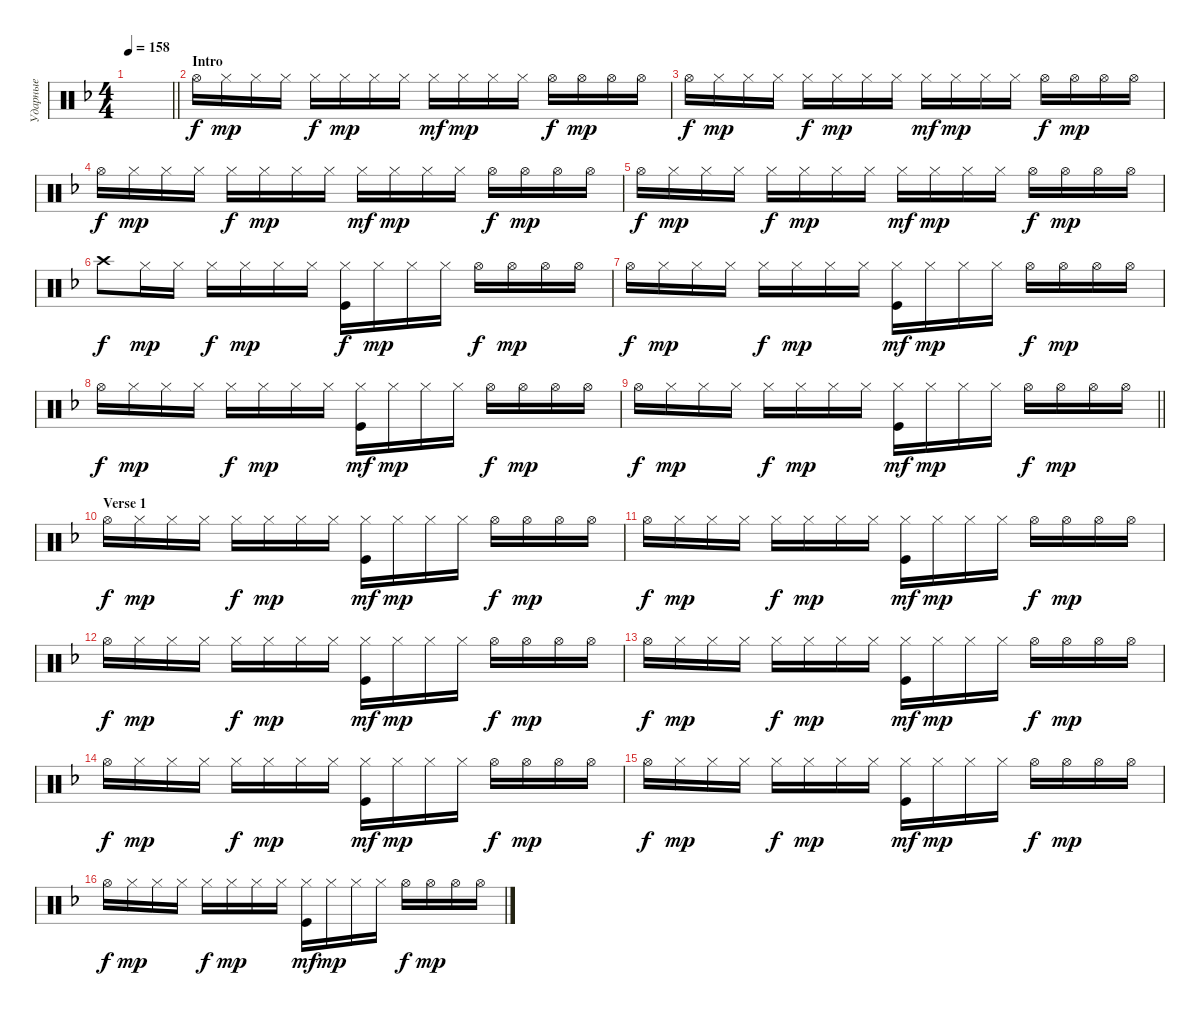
\track ("Ударные" "Ударные") {instrument percussion}
\staff {score}
\articulation defaults
\ts (4 4)
\tempo 158
\clef neutral
\barLineRight lightlight
\ks dminor
|
\section ("" "Intro")
"Hi-Hat (open)".16 "Hi-Hat (closed)".16{dy mp} "Hi-Hat (closed)".16 "Hi-Hat (closed)".16 "Hi-Hat (closed)".16{dy f} "Hi-Hat (closed)".16{dy mp} "Hi-Hat (closed)".16 "Hi-Hat (closed)".16 "Hi-Hat (closed)".16{dy mf} "Hi-Hat (closed)".16{dy mp} "Hi-Hat (closed)".16 "Hi-Hat (closed)".16 "Hi-Hat (open)".16{dy f} "Hi-Hat (open)".16{dy mp} "Hi-Hat (open)".16 "Hi-Hat (open)".16 |
"Hi-Hat (open)".16{dy f} "Hi-Hat (closed)".16{dy mp} "Hi-Hat (closed)".16 "Hi-Hat (closed)".16 "Hi-Hat (closed)".16{dy f} "Hi-Hat (closed)".16{dy mp} "Hi-Hat (closed)".16 "Hi-Hat (closed)".16 "Hi-Hat (closed)".16{dy mf} "Hi-Hat (closed)".16{dy mp} "Hi-Hat (closed)".16 "Hi-Hat (closed)".16 "Hi-Hat (open)".16{dy f} "Hi-Hat (open)".16{dy mp} "Hi-Hat (open)".16 "Hi-Hat (open)".16 |
"Hi-Hat (open)".16{dy f} "Hi-Hat (closed)".16{dy mp} "Hi-Hat (closed)".16 "Hi-Hat (closed)".16 "Hi-Hat (closed)".16{dy f} "Hi-Hat (closed)".16{dy mp} "Hi-Hat (closed)".16 "Hi-Hat (closed)".16 "Hi-Hat (closed)".16{dy mf} "Hi-Hat (closed)".16{dy mp} "Hi-Hat (closed)".16 "Hi-Hat (closed)".16 "Hi-Hat (open)".16{dy f} "Hi-Hat (open)".16{dy mp} "Hi-Hat (open)".16 "Hi-Hat (open)".16 |
"Hi-Hat (open)".16{dy f} "Hi-Hat (closed)".16{dy mp} "Hi-Hat (closed)".16 "Hi-Hat (closed)".16 "Hi-Hat (closed)".16{dy f} "Hi-Hat (closed)".16{dy mp} "Hi-Hat (closed)".16 "Hi-Hat (closed)".16 "Hi-Hat (closed)".16{dy mf} "Hi-Hat (closed)".16{dy mp} "Hi-Hat (closed)".16 "Hi-Hat (closed)".16 "Hi-Hat (open)".16{dy f} "Hi-Hat (open)".16{dy mp} "Hi-Hat (open)".16 "Hi-Hat (open)".16 |
"Crash high (hit)".8{dy f} "Hi-Hat (closed)".16{dy mp} "Hi-Hat (closed)".16 "Hi-Hat (closed)".16{dy f} "Hi-Hat (closed)".16{dy mp} "Hi-Hat (closed)".16 "Hi-Hat (closed)".16 ("Hi-Hat (closed)" "Kick (hit)").16{dy f} "Hi-Hat (closed)".16{dy mp} "Hi-Hat (closed)".16 "Hi-Hat (closed)".16 "Hi-Hat (open)".16{dy f} "Hi-Hat (open)".16{dy mp} "Hi-Hat (open)".16 "Hi-Hat (open)".16 |
"Hi-Hat (open)".16{dy f} "Hi-Hat (closed)".16{dy mp} "Hi-Hat (closed)".16 "Hi-Hat (closed)".16 "Hi-Hat (closed)".16{dy f} "Hi-Hat (closed)".16{dy mp} "Hi-Hat (closed)".16 "Hi-Hat (closed)".16 ("Hi-Hat (closed)" "Kick (hit)").16{dy mf} "Hi-Hat (closed)".16{dy mp} "Hi-Hat (closed)".16 "Hi-Hat (closed)".16 "Hi-Hat (open)".16{dy f} "Hi-Hat (open)".16{dy mp} "Hi-Hat (open)".16 "Hi-Hat (open)".16 |
"Hi-Hat (open)".16{dy f} "Hi-Hat (closed)".16{dy mp} "Hi-Hat (closed)".16 "Hi-Hat (closed)".16 "Hi-Hat (closed)".16{dy f} "Hi-Hat (closed)".16{dy mp} "Hi-Hat (closed)".16 "Hi-Hat (closed)".16 ("Hi-Hat (closed)" "Kick (hit)").16{dy mf} "Hi-Hat (closed)".16{dy mp} "Hi-Hat (closed)".16 "Hi-Hat (closed)".16 "Hi-Hat (open)".16{dy f} "Hi-Hat (open)".16{dy mp} "Hi-Hat (open)".16 "Hi-Hat (open)".16 |
\barLineRight lightlight "Hi-Hat (open)".16{dy f} "Hi-Hat (closed)".16{dy mp} "Hi-Hat (closed)".16 "Hi-Hat (closed)".16 "Hi-Hat (closed)".16{dy f} "Hi-Hat (closed)".16{dy mp} "Hi-Hat (closed)".16 "Hi-Hat (closed)".16
("Hi-Hat (closed)" "Kick (hit)").16{dy mf} "Hi-Hat (closed)".16{dy mp} "Hi-Hat (closed)".16 "Hi-Hat (closed)".16 "Hi-Hat (open)".16{dy f} "Hi-Hat (open)".16{dy mp} "Hi-Hat (open)".16 "Hi-Hat (open)".16 |
\section ("" "Verse 1")
"Hi-Hat (open)".16{dy f} "Hi-Hat (closed)".16{dy mp} "Hi-Hat (closed)".16 "Hi-Hat (closed)".16 "Hi-Hat (closed)".16{dy f} "Hi-Hat (closed)".16{dy mp} "Hi-Hat (closed)".16 "Hi-Hat (closed)".16 ("Hi-Hat (closed)" "Kick (hit)").16{dy mf} "Hi-Hat (closed)".16{dy mp} "Hi-Hat (closed)".16 "Hi-Hat (closed)".16 "Hi-Hat (open)".16{dy f} "Hi-Hat (open)".16{dy mp} "Hi-Hat (open)".16 "Hi-Hat (open)".16 |
"Hi-Hat (open)".16{dy f} "Hi-Hat (closed)".16{dy mp} "Hi-Hat (closed)".16 "Hi-Hat (closed)".16 "Hi-Hat (closed)".16{dy f} "Hi-Hat (closed)".16{dy mp} "Hi-Hat (closed)".16 "Hi-Hat (closed)".16 ("Hi-Hat (closed)" "Kick (hit)").16{dy mf} "Hi-Hat (closed)".16{dy mp} "Hi-Hat (closed)".16 "Hi-Hat (closed)".16 "Hi-Hat (open)".16{dy f} "Hi-Hat (open)".16{dy mp} "Hi-Hat (open)".16 "Hi-Hat (open)".16 |
"Hi-Hat (open)".16{dy f} "Hi-Hat (closed)".16{dy mp} "Hi-Hat (closed)".16 "Hi-Hat (closed)".16 "Hi-Hat (closed)".16{dy f} "Hi-Hat (closed)".16{dy mp} "Hi-Hat (closed)".16 "Hi-Hat (closed)".16 ("Hi-Hat (closed)" "Kick (hit)").16{dy mf} "Hi-Hat (closed)".16{dy mp} "Hi-Hat (closed)".16 "Hi-Hat (closed)".16 "Hi-Hat (open)".16{dy f} "Hi-Hat (open)".16{dy mp} "Hi-Hat (open)".16 "Hi-Hat (open)".16 |
"Hi-Hat (open)".16{dy f} "Hi-Hat (closed)".16{dy mp} "Hi-Hat (closed)".16 "Hi-Hat (closed)".16 "Hi-Hat (closed)".16{dy f} "Hi-Hat (closed)".16{dy mp} "Hi-Hat (closed)".16 "Hi-Hat (closed)".16 ("Hi-Hat (closed)" "Kick (hit)").16{dy mf} "Hi-Hat (closed)".16{dy mp} "Hi-Hat (closed)".16 "Hi-Hat (closed)".16 "Hi-Hat (open)".16{dy f} "Hi-Hat (open)".16{dy mp} "Hi-Hat (open)".16 "Hi-Hat (open)".16 |
"Hi-Hat (open)".16{dy f} "Hi-Hat (closed)".16{dy mp} "Hi-Hat (closed)".16 "Hi-Hat (closed)".16 "Hi-Hat (closed)".16{dy f} "Hi-Hat (closed)".16{dy mp} "Hi-Hat (closed)".16 "Hi-Hat (closed)".16 ("Hi-Hat (closed)" "Kick (hit)").16{dy mf} "Hi-Hat (closed)".16{dy mp} "Hi-Hat (closed)".16 "Hi-Hat (closed)".16 "Hi-Hat (open)".16{dy f} "Hi-Hat (open)".16{dy mp} "Hi-Hat (open)".16 "Hi-Hat (open)".16 |
"Hi-Hat (open)".16{dy f} "Hi-Hat (closed)".16{dy mp} "Hi-Hat (closed)".16 "Hi-Hat (closed)".16 "Hi-Hat (closed)".16{dy f} "Hi-Hat (closed)".16{dy mp} "Hi-Hat (closed)".16 "Hi-Hat (closed)".16 ("Hi-Hat (closed)" "Kick (hit)").16{dy mf} "Hi-Hat (closed)".16{dy mp} "Hi-Hat (closed)".16 "Hi-Hat (closed)".16 "Hi-Hat (open)".16{dy f} "Hi-Hat (open)".16{dy mp} "Hi-Hat (open)".16 "Hi-Hat (open)".16 |
"Hi-Hat (open)".16{dy f} "Hi-Hat (closed)".16{dy mp} "Hi-Hat (closed)".16 "Hi-Hat (closed)".16 "Hi-Hat (closed)".16{dy f} "Hi-Hat (closed)".16{dy mp} "Hi-Hat (closed)".16 "Hi-Hat (closed)".16 ("Hi-Hat (closed)" "Kick (hit)").16{dy mf} "Hi-Hat (closed)".16{dy mp} "Hi-Hat (closed)".16 "Hi-Hat (closed)".16 "Hi-Hat (open)".16{dy f} "Hi-Hat (open)".16{dy mp} "Hi-Hat (open)".16 "Hi-Hat (open)".16
